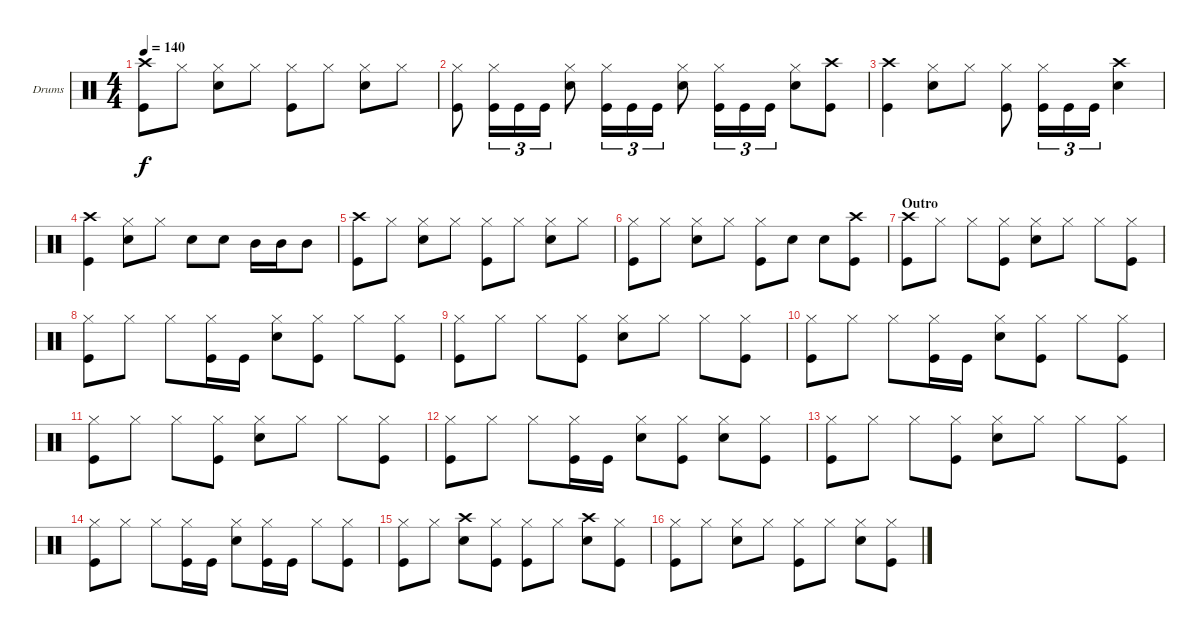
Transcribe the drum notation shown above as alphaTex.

\defaultSystemsLayout 4
\bracketExtendMode groupsimilarinstruments
\firstSystemTrackNameOrientation horizontal
\otherSystemsTrackNameOrientation horizontal
\track ("Drums" "Drums") {instrument percussion}
\staff {score}
\articulation defaults
\ts (4 4)
\tempo 140
\clef neutral
\ks c
("Crash high (hit)" "Kick (hit)").8{dy f} "Hi-Hat (closed)".8 ("Snare (hit) 2" "Hi-Hat (closed)").8 "Hi-Hat (closed)".8 ("Hi-Hat (closed)" "Kick (hit)").8 "Hi-Hat (closed)".8 ("Snare (hit) 2" "Hi-Hat (closed)").8 "Hi-Hat (closed)".8 |
("Kick (hit)" "Hi-Hat (closed)").8 ("Kick (hit)" "Hi-Hat (closed)").16{tu (3 2)} "Kick (hit)".16{tu (3 2)} "Kick (hit)".16{tu (3 2)} ("Snare (hit) 2" "Hi-Hat (closed)").8 ("Kick (hit)" "Hi-Hat (closed)").16{tu (3 2)} "Kick (hit)".16{tu (3 2)} "Kick (hit)".16{tu (3 2)} ("Snare (hit) 2" "Hi-Hat (closed)").8 ("Kick (hit)" "Hi-Hat (closed)").16{tu (3 2)} "Kick (hit)".16{tu (3 2)} "Kick (hit)".16{tu (3 2)} ("Snare (hit) 2" "Hi-Hat (closed)").8 ("Crash high (hit)" "Kick (hit)").8 |
("Kick (hit)" "Crash high (hit)").4 ("Snare (hit) 2" "Hi-Hat (closed)").8 "Hi-Hat (closed)".8 ("Hi-Hat (closed)" "Kick (hit)").8 ("Hi-Hat (closed)" "Kick (hit)").16{tu (3 2)} "Kick (hit)".16{tu (3 2)} "Kick (hit)".16{tu (3 2)} ("Snare (hit) 2" "Crash high (hit)").4 |
("Kick (hit)" "Crash high (hit)").4 ("Hi-Hat (closed)" "Snare (hit) 2").8 "Hi-Hat (closed)".8 "Snare (hit) 2".8 "Snare (hit) 2".8 "Mid Tom (hit)".16 "Mid Tom (hit)".16 "Mid Tom (hit)".8 |
("Kick (hit)" "Crash high (hit)").8 "Hi-Hat (closed)".8 ("Snare (hit) 2" "Hi-Hat (closed)").8 "Hi-Hat (closed)".8 ("Kick (hit)" "Hi-Hat (closed)").8 "Hi-Hat (closed)".8 ("Snare (hit) 2" "Hi-Hat (closed)").8 "Hi-Hat (closed)".8 |
("Hi-Hat (closed)" "Kick (hit)").8 "Hi-Hat (closed)".8 ("Snare (hit) 2" "Hi-Hat (closed)").8 "Hi-Hat (closed)".8 ("Hi-Hat (closed)" "Kick (hit)").8 "Snare (hit) 2".8 "Snare (hit) 2".8 ("Crash high (hit)" "Kick (hit)").8 |
\section ("" "Outro")
("Kick (hit)" "Crash high (hit)").8 "Hi-Hat (closed)".8 "Hi-Hat (closed)".8 ("Kick (hit)" "Hi-Hat (closed)").8 ("Hi-Hat (closed)" "Snare (hit) 2").8 "Hi-Hat (closed)".8 "Hi-Hat (closed)".8 ("Kick (hit)" "Hi-Hat (closed)").8 |
("Hi-Hat (closed)" "Kick (hit)").8 "Hi-Hat (closed)".8 "Hi-Hat (closed)".8 ("Hi-Hat (closed)" "Kick (hit)").16 "Kick (hit)".16 ("Snare (hit) 2" "Hi-Hat (closed)").8 ("Hi-Hat (closed)" "Kick (hit)").8 "Hi-Hat (closed)".8 ("Hi-Hat (closed)" "Kick (hit)").8 |
("Hi-Hat (closed)" "Kick (hit)").8 "Hi-Hat (closed)".8 "Hi-Hat (closed)".8 ("Kick (hit)" "Hi-Hat (closed)").8 ("Hi-Hat (closed)" "Snare (hit) 2").8 "Hi-Hat (closed)".8 "Hi-Hat (closed)".8 ("Kick (hit)" "Hi-Hat (closed)").8 |
("Hi-Hat (closed)" "Kick (hit)").8 "Hi-Hat (closed)".8 "Hi-Hat (closed)".8 ("Hi-Hat (closed)" "Kick (hit)").16 "Kick (hit)".16 ("Snare (hit) 2" "Hi-Hat (closed)").8 ("Hi-Hat (closed)" "Kick (hit)").8 "Hi-Hat (closed)".8 ("Hi-Hat (closed)" "Kick (hit)").8 |
("Hi-Hat (closed)" "Kick (hit)").8 "Hi-Hat (closed)".8 "Hi-Hat (closed)".8 ("Kick (hit)" "Hi-Hat (closed)").8 ("Hi-Hat (closed)" "Snare (hit) 2").8 "Hi-Hat (closed)".8 "Hi-Hat (closed)".8 ("Kick (hit)" "Hi-Hat (closed)").8 |
("Hi-Hat (closed)" "Kick (hit)").8 "Hi-Hat (closed)".8 "Hi-Hat (closed)".8 ("Hi-Hat (closed)" "Kick (hit)").16 "Kick (hit)".16 ("Snare (hit) 2" "Hi-Hat (closed)").8 ("Hi-Hat (closed)" "Kick (hit)").8 ("Hi-Hat (closed)" "Snare (hit) 2").8 ("Hi-Hat (closed)" "Kick (hit)").8 |
("Hi-Hat (closed)" "Kick (hit)").8 "Hi-Hat (closed)".8 "Hi-Hat (closed)".8 ("Kick (hit)" "Hi-Hat (closed)").8 ("Hi-Hat (closed)" "Snare (hit) 2").8 "Hi-Hat (closed)".8 "Hi-Hat (closed)".8 ("Kick (hit)" "Hi-Hat (closed)").8 |
("Hi-Hat (closed)" "Kick (hit)").8 "Hi-Hat (closed)".8 "Hi-Hat (closed)".8 ("Hi-Hat (closed)" "Kick (hit)").16 "Kick (hit)".16 ("Snare (hit) 2" "Hi-Hat (closed)").8 ("Hi-Hat (closed)" "Kick (hit)").16 "Kick (hit)".16 "Hi-Hat (closed)".8 ("Hi-Hat (closed)" "Kick (hit)").8 |
("Kick (hit)" "Hi-Hat (closed)").8 "Hi-Hat (closed)".8 ("Snare (hit) 2" "Crash high (hit)").8 ("Kick (hit)" "Hi-Hat (closed)").8 ("Kick (hit)" "Hi-Hat (closed)").8 "Hi-Hat (closed)".8 ("Crash high (hit)" "Snare (hit) 2").8 ("Kick (hit)" "Hi-Hat (closed)").8 |
("Hi-Hat (closed)" "Kick (hit)").8 "Hi-Hat (closed)".8 ("Snare (hit) 2" "Hi-Hat (closed)").8 "Hi-Hat (closed)".8 ("Hi-Hat (closed)" "Kick (hit)").8 "Hi-Hat (closed)".8 ("Snare (hit) 2" "Hi-Hat (closed)").8 ("Hi-Hat (closed)" "Kick (hit)").8
